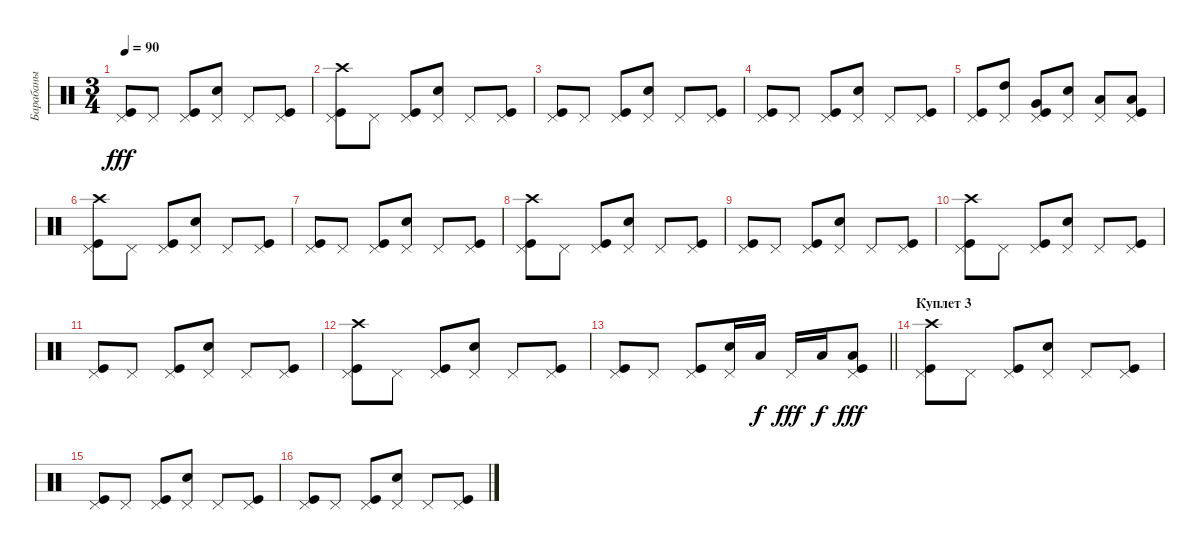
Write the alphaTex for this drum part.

\track ("Барабаны" "Барабаны") {instrument percussion}
\staff {score}
\articulation defaults
\ts (3 4)
\tempo 90
\clef neutral
\ks c
("Kick (hit)" "Pedal Hi-Hat (hit)").8{dy fff} "Pedal Hi-Hat (hit)".8 ("Kick (hit)" "Pedal Hi-Hat (hit)").8 ("Snare (hit) 2" "Pedal Hi-Hat (hit)").8 "Pedal Hi-Hat (hit)".8 ("Kick (hit)" "Pedal Hi-Hat (hit)").8 |
("Kick (hit)" "Pedal Hi-Hat (hit)" "Crash high (hit)").8 "Pedal Hi-Hat (hit)".8 ("Kick (hit)" "Pedal Hi-Hat (hit)").8 ("Snare (hit) 2" "Pedal Hi-Hat (hit)").8 "Pedal Hi-Hat (hit)".8 ("Kick (hit)" "Pedal Hi-Hat (hit)").8 |
("Kick (hit)" "Pedal Hi-Hat (hit)").8 "Pedal Hi-Hat (hit)".8 ("Kick (hit)" "Pedal Hi-Hat (hit)").8 ("Snare (hit) 2" "Pedal Hi-Hat (hit)").8 "Pedal Hi-Hat (hit)".8 ("Kick (hit)" "Pedal Hi-Hat (hit)").8 |
("Kick (hit)" "Pedal Hi-Hat (hit)").8 "Pedal Hi-Hat (hit)".8 ("Kick (hit)" "Pedal Hi-Hat (hit)").8 ("Snare (hit) 2" "Pedal Hi-Hat (hit)").8 "Pedal Hi-Hat (hit)".8 ("Kick (hit)" "Pedal Hi-Hat (hit)").8 |
("Kick (hit)" "Pedal Hi-Hat (hit)").8 ("Pedal Hi-Hat (hit)" "High Tom (hit)").8 ("Kick (hit)" "Pedal Hi-Hat (hit)" "Very Low Tom (hit)").8 ("Snare (hit) 2" "Pedal Hi-Hat (hit)").8 ("Pedal Hi-Hat (hit)" "Low Floor Tom (hit)").8 ("Kick (hit)" "Pedal Hi-Hat (hit)" "Low Floor Tom (hit)").8 |
("Kick (hit)" "Pedal Hi-Hat (hit)" "Crash high (hit)").8 "Pedal Hi-Hat (hit)".8 ("Kick (hit)" "Pedal Hi-Hat (hit)").8 ("Snare (hit) 2" "Pedal Hi-Hat (hit)").8 "Pedal Hi-Hat (hit)".8 ("Kick (hit)" "Pedal Hi-Hat (hit)").8 |
("Kick (hit)" "Pedal Hi-Hat (hit)").8 "Pedal Hi-Hat (hit)".8 ("Kick (hit)" "Pedal Hi-Hat (hit)").8 ("Snare (hit) 2" "Pedal Hi-Hat (hit)").8 "Pedal Hi-Hat (hit)".8 ("Kick (hit)" "Pedal Hi-Hat (hit)").8 |
("Kick (hit)" "Pedal Hi-Hat (hit)" "Crash high (hit)").8 "Pedal Hi-Hat (hit)".8 ("Kick (hit)" "Pedal Hi-Hat (hit)").8 ("Snare (hit) 2" "Pedal Hi-Hat (hit)").8 "Pedal Hi-Hat (hit)".8 ("Kick (hit)" "Pedal Hi-Hat (hit)").8 |
("Kick (hit)" "Pedal Hi-Hat (hit)").8 "Pedal Hi-Hat (hit)".8 ("Kick (hit)" "Pedal Hi-Hat (hit)").8 ("Snare (hit) 2" "Pedal Hi-Hat (hit)").8 "Pedal Hi-Hat (hit)".8 ("Kick (hit)" "Pedal Hi-Hat (hit)").8 |
("Kick (hit)" "Pedal Hi-Hat (hit)" "Crash high (hit)").8 "Pedal Hi-Hat (hit)".8 ("Kick (hit)" "Pedal Hi-Hat (hit)").8 ("Snare (hit) 2" "Pedal Hi-Hat (hit)").8 "Pedal Hi-Hat (hit)".8 ("Kick (hit)" "Pedal Hi-Hat (hit)").8 |
("Kick (hit)" "Pedal Hi-Hat (hit)").8 "Pedal Hi-Hat (hit)".8 ("Kick (hit)" "Pedal Hi-Hat (hit)").8 ("Snare (hit) 2" "Pedal Hi-Hat (hit)").8 "Pedal Hi-Hat (hit)".8 ("Kick (hit)" "Pedal Hi-Hat (hit)").8 |
("Kick (hit)" "Pedal Hi-Hat (hit)" "Crash high (hit)").8 "Pedal Hi-Hat (hit)".8 ("Kick (hit)" "Pedal Hi-Hat (hit)").8 ("Snare (hit) 2" "Pedal Hi-Hat (hit)").8 "Pedal Hi-Hat (hit)".8 ("Kick (hit)" "Pedal Hi-Hat (hit)").8 |
\barLineRight lightlight
("Kick (hit)" "Pedal Hi-Hat (hit)").8 "Pedal Hi-Hat (hit)".8 ("Kick (hit)" "Pedal Hi-Hat (hit)").8 ("Snare (hit) 2" "Pedal Hi-Hat (hit)").16 "Low Floor Tom (hit)".16{dy f} "Pedal Hi-Hat (hit)".16{dy fff} "Low Floor Tom (hit)".16{dy f} ("Kick (hit)" "Pedal Hi-Hat (hit)" "Low Floor Tom (hit)").8{dy fff} |
\section ("" "Куплет 3")
("Kick (hit)" "Pedal Hi-Hat (hit)" "Crash high (hit)").8 "Pedal Hi-Hat (hit)".8 ("Kick (hit)" "Pedal Hi-Hat (hit)").8 ("Snare (hit) 2" "Pedal Hi-Hat (hit)").8 "Pedal Hi-Hat (hit)".8 ("Kick (hit)" "Pedal Hi-Hat (hit)").8 |
("Kick (hit)" "Pedal Hi-Hat (hit)").8 "Pedal Hi-Hat (hit)".8 ("Kick (hit)" "Pedal Hi-Hat (hit)").8 ("Snare (hit) 2" "Pedal Hi-Hat (hit)").8 "Pedal Hi-Hat (hit)".8 ("Kick (hit)" "Pedal Hi-Hat (hit)").8 |
("Kick (hit)" "Pedal Hi-Hat (hit)").8 "Pedal Hi-Hat (hit)".8 ("Kick (hit)" "Pedal Hi-Hat (hit)").8 ("Snare (hit) 2" "Pedal Hi-Hat (hit)").8 "Pedal Hi-Hat (hit)".8 ("Kick (hit)" "Pedal Hi-Hat (hit)").8
